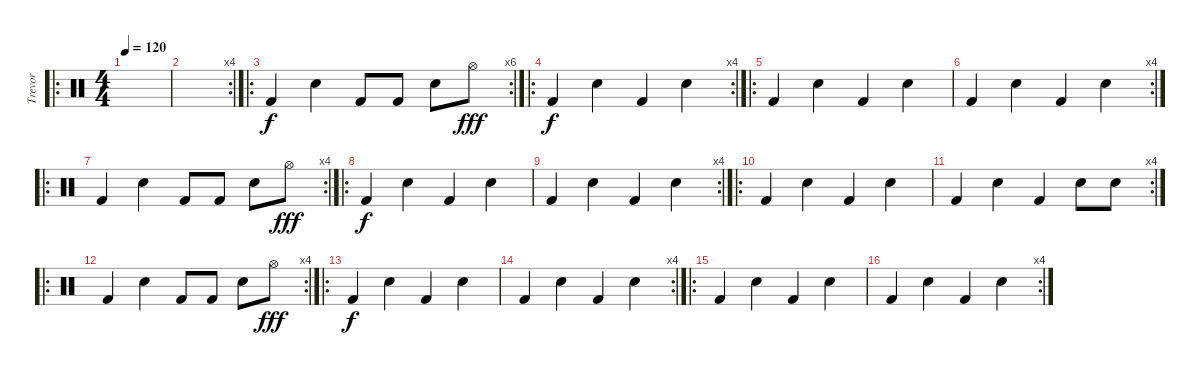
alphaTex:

\track ("Trevor" "Trevor") {instrument percussion}
\staff {score}
\articulation defaults
\ro
\ts (4 4)
\tempo 120
\clef neutral
\ks c
|
\rc 4
|
\ro
\rc 6 "Kick (hit) 2".4 "Electric Snare (hit)".4 "Kick (hit) 2".8 "Kick (hit) 2".8 "Electric Snare (hit)".8 "Hi-Hat (open)".8{dy fff}
|
\ro
\rc 4 "Kick (hit) 2".4{dy f} "Electric Snare (hit)".4 "Kick (hit) 2".4 "Electric Snare (hit)".4
|
\ro "Kick (hit) 2".4 "Electric Snare (hit)".4 "Kick (hit) 2".4 "Electric Snare (hit)".4
|
\rc 4 "Kick (hit) 2".4 "Electric Snare (hit)".4 "Kick (hit) 2".4 "Electric Snare (hit)".4
|
\ro
\rc 4 "Kick (hit) 2".4 "Electric Snare (hit)".4 "Kick (hit) 2".8 "Kick (hit) 2".8 "Electric Snare (hit)".8 "Hi-Hat (open)".8{dy fff}
|
\ro "Kick (hit) 2".4{dy f} "Electric Snare (hit)".4 "Kick (hit) 2".4 "Electric Snare (hit)".4
|
\rc 4 "Kick (hit) 2".4 "Electric Snare (hit)".4 "Kick (hit) 2".4 "Electric Snare (hit)".4
|
\ro "Kick (hit) 2".4 "Electric Snare (hit)".4 "Kick (hit) 2".4 "Electric Snare (hit)".4
|
\rc 4 "Kick (hit) 2".4 "Electric Snare (hit)".4 "Kick (hit) 2".4 "Electric Snare (hit)".8 "Electric Snare (hit)".8
|
\ro
\rc 4 "Kick (hit) 2".4 "Electric Snare (hit)".4 "Kick (hit) 2".8 "Kick (hit) 2".8 "Electric Snare (hit)".8 "Hi-Hat (open)".8{dy fff}
|
\ro "Kick (hit) 2".4{dy f} "Electric Snare (hit)".4 "Kick (hit) 2".4 "Electric Snare (hit)".4
|
\rc 4 "Kick (hit) 2".4 "Electric Snare (hit)".4 "Kick (hit) 2".4 "Electric Snare (hit)".4
|
\ro "Kick (hit) 2".4 "Electric Snare (hit)".4 "Kick (hit) 2".4 "Electric Snare (hit)".4
|
\rc 4 "Kick (hit) 2".4 "Electric Snare (hit)".4 "Kick (hit) 2".4 "Electric Snare (hit)".4
